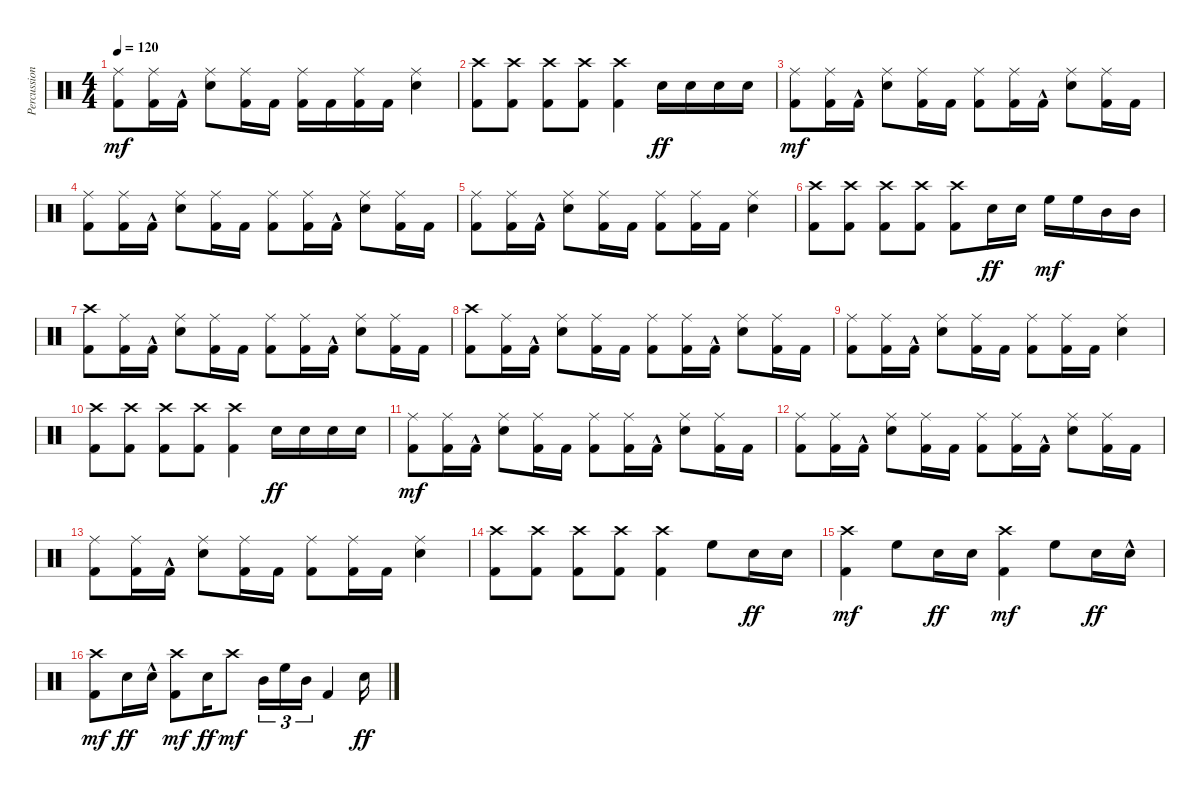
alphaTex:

\track ("Percussioni" "Percussion") {instrument percussion}
\staff {score}
\articulation defaults
\ts (4 4)
\tempo 120
\clef neutral
\ks c
("Kick (hit) 2" "Ride (middle)").8{dy mf} ("Kick (hit) 2" "Ride (middle)").16 "Kick (hit) 2"{hac}.16 ("Snare (hit) 2" "Ride (middle)").8 ("Kick (hit) 2" "Ride (middle)").16 "Kick (hit) 2".16 ("Kick (hit) 2" "Ride (middle)").16 "Kick (hit) 2".16 ("Kick (hit) 2" "Ride (middle)").16 "Kick (hit) 2".16 ("Snare (hit) 2" "Ride (middle)").4 |
("Kick (hit) 2" "Crash high (hit)").8 ("Kick (hit) 2" "Crash high (hit)").8 ("Kick (hit) 2" "Crash high (hit)").8 ("Kick (hit) 2" "Crash high (hit)").8 ("Kick (hit) 2" "Crash high (hit)").4 "Snare (hit) 2".16{dy ff} "Snare (hit) 2".16 "Snare (hit) 2".16 "Snare (hit) 2".16 |
("Kick (hit) 2" "Ride (middle)").8{dy mf} ("Kick (hit) 2" "Ride (middle)").16 "Kick (hit) 2"{hac}.16 ("Snare (hit) 2" "Ride (middle)").8 ("Kick (hit) 2" "Ride (middle)").16 "Kick (hit) 2".16 ("Kick (hit) 2" "Ride (middle)").8 ("Kick (hit) 2" "Ride (middle)").16 "Kick (hit) 2"{hac}.16 ("Snare (hit) 2" "Ride (middle)").8 ("Kick (hit) 2" "Ride (middle)").16 "Kick (hit) 2".16 |
("Kick (hit) 2" "Ride (middle)").8 ("Kick (hit) 2" "Ride (middle)").16 "Kick (hit) 2"{hac}.16 ("Snare (hit) 2" "Ride (middle)").8 ("Kick (hit) 2" "Ride (middle)").16 "Kick (hit) 2".16 ("Kick (hit) 2" "Ride (middle)").8 ("Kick (hit) 2" "Ride (middle)").16 "Kick (hit) 2"{hac}.16 ("Snare (hit) 2" "Ride (middle)").8 ("Kick (hit) 2" "Ride (middle)").16 "Kick (hit) 2".16 |
("Kick (hit) 2" "Ride (middle)").8 ("Kick (hit) 2" "Ride (middle)").16 "Kick (hit) 2"{hac}.16 ("Snare (hit) 2" "Ride (middle)").8 ("Kick (hit) 2" "Ride (middle)").16 "Kick (hit) 2".16 ("Kick (hit) 2" "Ride (middle)").8 ("Kick (hit) 2" "Ride (middle)").16 "Kick (hit) 2".16 ("Snare (hit) 2" "Ride (middle)").4 |
("Kick (hit) 2" "Crash high (hit)").8 ("Kick (hit) 2" "Crash high (hit)").8 ("Kick (hit) 2" "Crash high (hit)").8 ("Kick (hit) 2" "Crash high (hit)").8 ("Kick (hit) 2" "Crash high (hit)").8 "Snare (hit) 2".16{dy ff} "Snare (hit) 2".16 "High Floor Tom (hit)".16{dy mf} "High Floor Tom (hit)".16 "Mid Tom (hit)".16 "Mid Tom (hit)".16 |
("Kick (hit) 2" "Crash high (hit)").8 ("Kick (hit) 2" "Ride (middle)").16 "Kick (hit) 2"{hac}.16 ("Snare (hit) 2" "Ride (middle)").8 ("Kick (hit) 2" "Ride (middle)").16 "Kick (hit) 2".16 ("Kick (hit) 2" "Ride (middle)").8 ("Kick (hit) 2" "Ride (middle)").16 "Kick (hit) 2"{hac}.16 ("Snare (hit) 2" "Ride (middle)").8 ("Kick (hit) 2" "Ride (middle)").16 "Kick (hit) 2".16 |
("Kick (hit) 2" "Crash high (hit)").8 ("Kick (hit) 2" "Ride (middle)").16 "Kick (hit) 2"{hac}.16 ("Snare (hit) 2" "Ride (middle)").8 ("Kick (hit) 2" "Ride (middle)").16 "Kick (hit) 2".16 ("Kick (hit) 2" "Ride (middle)").8 ("Kick (hit) 2" "Ride (middle)").16 "Kick (hit) 2"{hac}.16 ("Snare (hit) 2" "Ride (middle)").8 ("Kick (hit) 2" "Ride (middle)").16 "Kick (hit) 2".16 |
("Kick (hit) 2" "Ride (middle)").8 ("Kick (hit) 2" "Ride (middle)").16 "Kick (hit) 2"{hac}.16 ("Snare (hit) 2" "Ride (middle)").8 ("Kick (hit) 2" "Ride (middle)").16 "Kick (hit) 2".16 ("Kick (hit) 2" "Ride (middle)").8 ("Kick (hit) 2" "Ride (middle)").16 "Kick (hit) 2".16 ("Snare (hit) 2" "Ride (middle)").4 |
("Kick (hit) 2" "Crash high (hit)").8 ("Kick (hit) 2" "Crash high (hit)").8 ("Kick (hit) 2" "Crash high (hit)").8 ("Kick (hit) 2" "Crash high (hit)").8 ("Kick (hit) 2" "Crash high (hit)").4 "Snare (hit) 2".16{dy ff} "Snare (hit) 2".16 "Snare (hit) 2".16 "Snare (hit) 2".16 |
("Kick (hit) 2" "Ride (middle)").8{dy mf} ("Kick (hit) 2" "Ride (middle)").16 "Kick (hit) 2"{hac}.16 ("Snare (hit) 2" "Ride (middle)").8 ("Kick (hit) 2" "Ride (middle)").16 "Kick (hit) 2".16 ("Kick (hit) 2" "Ride (middle)").8 ("Kick (hit) 2" "Ride (middle)").16 "Kick (hit) 2"{hac}.16 ("Snare (hit) 2" "Ride (middle)").8 ("Kick (hit) 2" "Ride (middle)").16 "Kick (hit) 2".16 |
("Kick (hit) 2" "Ride (middle)").8 ("Kick (hit) 2" "Ride (middle)").16 "Kick (hit) 2"{hac}.16 ("Snare (hit) 2" "Ride (middle)").8 ("Kick (hit) 2" "Ride (middle)").16 "Kick (hit) 2".16 ("Kick (hit) 2" "Ride (middle)").8 ("Kick (hit) 2" "Ride (middle)").16 "Kick (hit) 2"{hac}.16 ("Snare (hit) 2" "Ride (middle)").8 ("Kick (hit) 2" "Ride (middle)").16 "Kick (hit) 2".16 |
("Kick (hit) 2" "Ride (middle)").8 ("Kick (hit) 2" "Ride (middle)").16 "Kick (hit) 2"{hac}.16 ("Snare (hit) 2" "Ride (middle)").8 ("Kick (hit) 2" "Ride (middle)").16 "Kick (hit) 2".16 ("Kick (hit) 2" "Ride (middle)").8 ("Kick (hit) 2" "Ride (middle)").16 "Kick (hit) 2".16 ("Snare (hit) 2" "Ride (middle)").4 |
("Kick (hit) 2" "Crash high (hit)").8 ("Kick (hit) 2" "Crash high (hit)").8 ("Kick (hit) 2" "Crash high (hit)").8 ("Kick (hit) 2" "Crash high (hit)").8 ("Kick (hit) 2" "Crash high (hit)").4 "High Floor Tom (hit)".8 "Snare (hit) 2".16{dy ff} "Snare (hit) 2".16 |
("Kick (hit) 2" "Crash high (hit)").4{dy mf} "High Floor Tom (hit)".8 "Snare (hit) 2".16{dy ff} "Snare (hit) 2".16 ("Kick (hit) 2" "Crash high (hit)").4{dy mf} "High Floor Tom (hit)".8 "Snare (hit) 2".16{dy ff} "Snare (hit) 2"{hac}.16 |
("Kick (hit) 2" "Crash high (hit)").8{dy mf} "Snare (hit) 2".16{dy ff} "Snare (hit) 2"{hac}.16 ("Kick (hit) 2" "Crash high (hit)").8{dy mf} "Snare (hit) 2".16{dy ff} "Crash high (hit)".8{dy mf} "Mid Tom (hit)".16{tu (3 2)} "High Floor Tom (hit)".16{tu (3 2)} "Mid Tom (hit)".16{tu (3 2)} "Kick (hit) 2".4 "Snare (hit) 2".16{dy ff}
